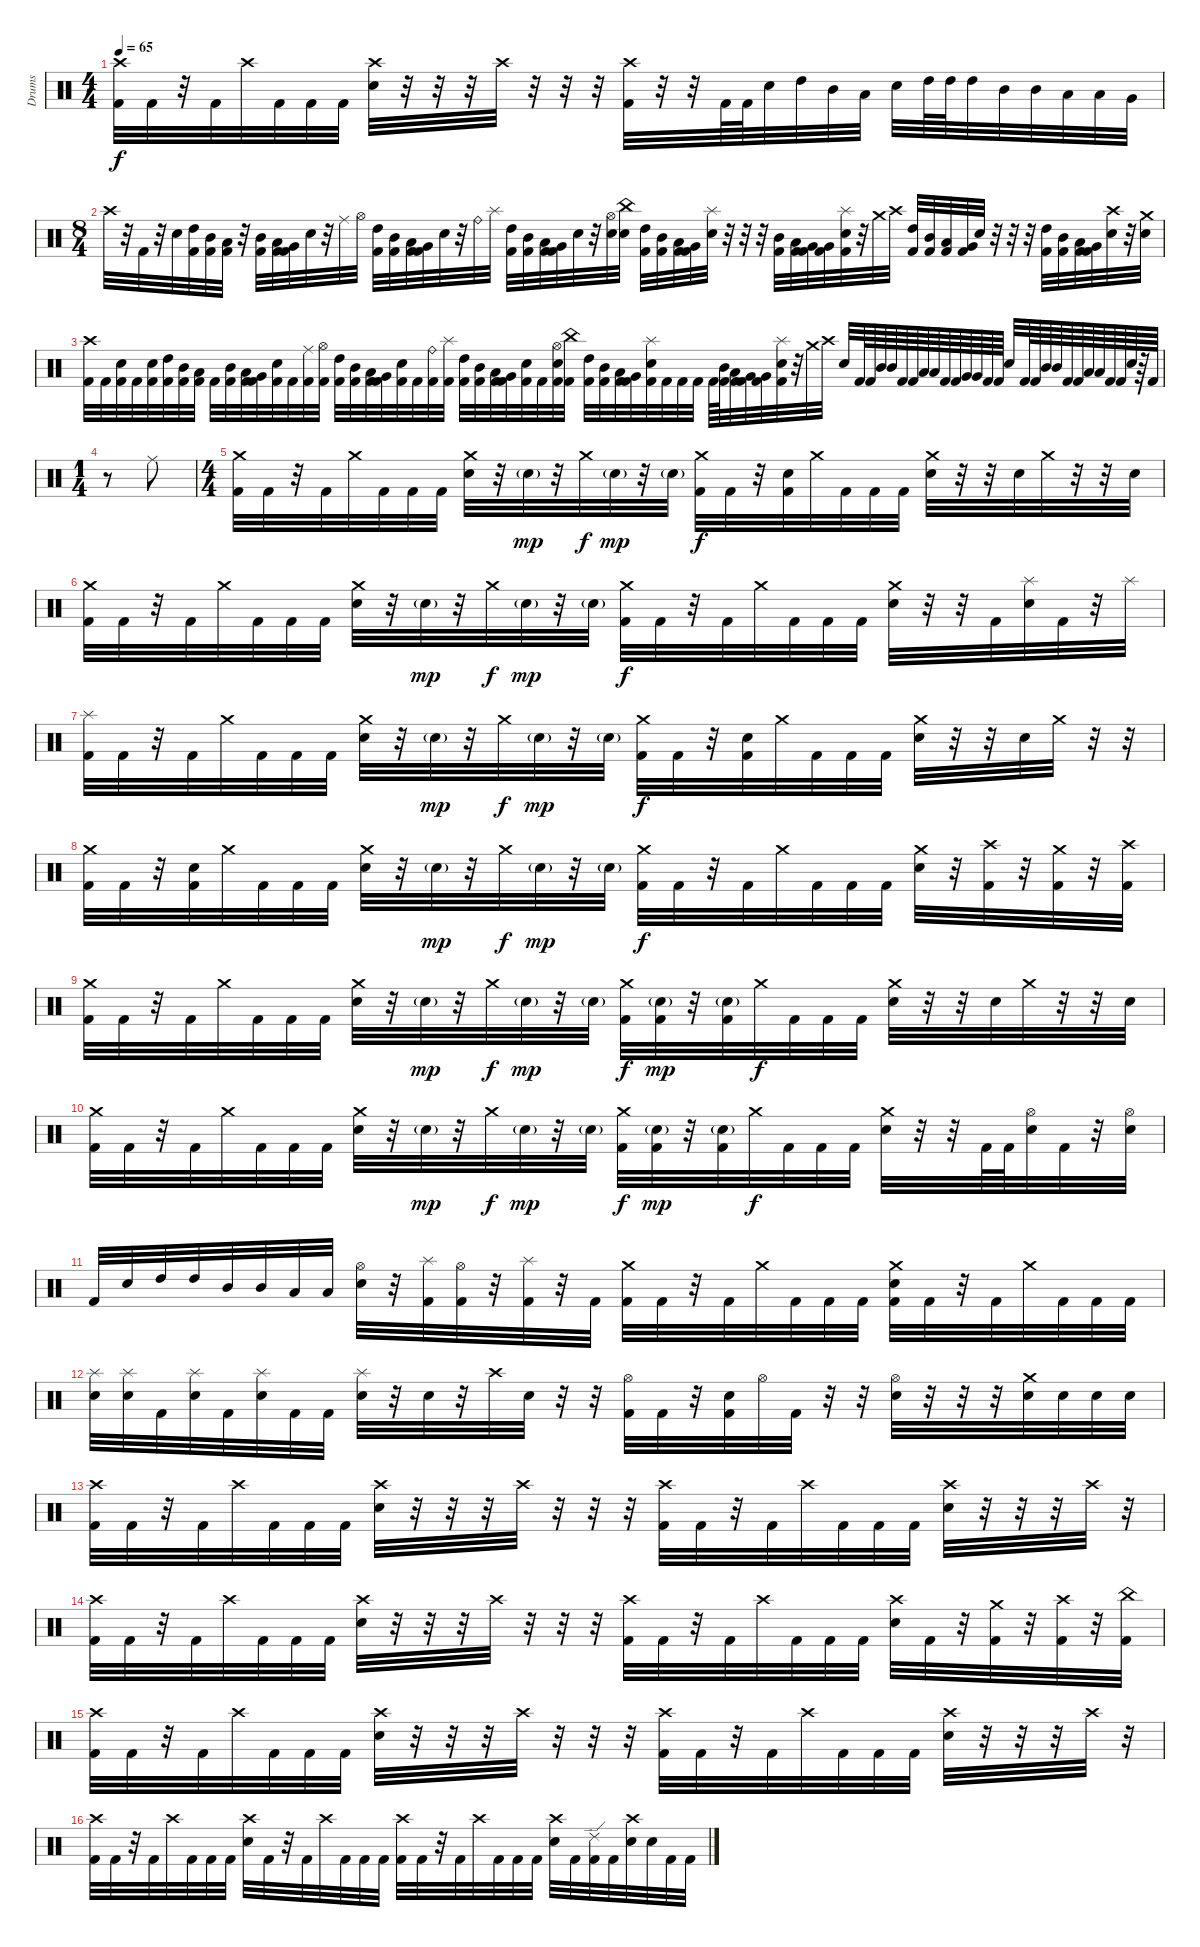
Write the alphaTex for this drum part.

\track ("Drums" "Drums") {instrument percussion}
\staff {score}
\articulation defaults
\ts (4 4)
\tempo 65
\clef neutral
\ks c
("Crash high (hit)" "Kick (hit) 2").32{dy f} "Kick (hit) 2".32 r.32 "Kick (hit) 2".32 "Crash high (hit)".32 "Kick (hit) 2".32 "Kick (hit) 2".32 "Kick (hit) 2".32 ("Crash high (hit)" "Electric Snare (hit)").32 r.32 r.32 r.32 "Crash high (hit)".32 r.32 r.32 r.32 ("Crash high (hit)" "Kick (hit) 2").32 r.32 r.32 "Kick (hit) 2".64 "Kick (hit) 2".64 "Electric Snare (hit)".32 "High Tom (hit)".32 "Mid Tom (hit)".32 "Low Tom (hit)".32 "Electric Snare (hit)".32 "High Tom (hit)".64 "High Tom (hit)".64 "High Tom (hit)".32 "Mid Tom (hit)".32 "Mid Tom (hit)".32 "Low Tom (hit)".32 "Low Tom (hit)".32 "Very Low Tom (hit)".32 |
\ts (8 4)
"Crash high (hit)".32 r.32 "Kick (hit) 2".32 r.32 "Electric Snare (hit)".32 ("High Tom (hit)" "Kick (hit) 2").32 ("Mid Tom (hit)" "Kick (hit) 2").32 ("Low Tom (hit)" "Kick (hit) 2").32 r.32 ("Mid Tom (hit)" "Kick (hit) 2").32 ("Low Tom (hit)" "Kick (hit) 2").32 ("Very Low Tom (hit)" "Kick (hit) 2").32 "Electric Snare (hit)".32 r.32 "Ride (middle)".32 "Hi-Hat (open)".32 ("High Tom (hit)" "Kick (hit) 2").32 ("Mid Tom (hit)" "Kick (hit) 2").32 ("Low Tom (hit)" "Kick (hit) 2").32 ("Very Low Tom (hit)" "Kick (hit) 2").32 "Electric Snare (hit)".32 r.32 "Ride (bell)".32 "Splash (hit)".32 ("High Tom (hit)" "Kick (hit) 2").32 ("Mid Tom (hit)" "Kick (hit) 2").32 ("Low Tom (hit)" "Kick (hit) 2").32 ("Very Low Tom (hit)" "Kick (hit) 2").32 "Electric Snare (hit)".32 r.32 ("Hi-Hat (open)" "Electric Snare (hit)").32 ("China (hit)" "Electric Snare (hit)").32 ("High Tom (hit)" "Kick (hit) 2").32 ("Mid Tom (hit)" "Kick (hit) 2").32 ("Low Tom (hit)" "Kick (hit) 2").32 ("Very Low Tom (hit)" "Kick (hit) 2").32 ("Splash (hit)" "Electric Snare (hit)").32 r.32 r.32 r.32 ("Mid Tom (hit)" "Kick (hit) 2").32 ("Low Tom (hit)" "Kick (hit) 2").32 ("Very Low Tom (hit)" "Kick (hit) 2").32 ("Very Low Tom (hit)" "Kick (hit) 2").32 ("Splash (hit)" "Electric Snare (hit)" "Kick (hit) 2").32 r.32 "Crash medium (hit)".32 "Crash high (hit)".32 ("High Tom (hit)" "Kick (hit) 2").32 ("Mid Tom (hit)" "Kick (hit) 2").32 ("Low Tom (hit)" "Kick (hit) 2").32 ("Very Low Tom (hit)" "Kick (hit) 2").32 "Electric Snare (hit)".32 r.32 r.32 r.32 ("High Tom (hit)" "Kick (hit) 2").32 ("Mid Tom (hit)" "Kick (hit) 2").32 ("Low Tom (hit)" "Kick (hit) 2").32 ("Very Low Tom (hit)" "Kick (hit) 2").32 ("Crash high (hit)" "Electric Snare (hit)").32 r.32 ("Crash medium (hit)" "Electric Snare (hit)").32 |
("Crash high (hit)" "Kick (hit) 2").32 "Kick (hit) 2".32 ("Electric Snare (hit)" "Kick (hit) 2").32 "Kick (hit) 2".32 ("Electric Snare (hit)" "Kick (hit) 2").32 ("High Tom (hit)" "Kick (hit) 2").32 ("Mid Tom (hit)" "Kick (hit) 2").32 ("Low Tom (hit)" "Kick (hit) 2").32 "Kick (hit) 2".32 ("Mid Tom (hit)" "Kick (hit) 2").32 ("Low Tom (hit)" "Kick (hit) 2").32 ("Very Low Tom (hit)" "Kick (hit) 2").32 ("Electric Snare (hit)" "Kick (hit) 2").32 "Kick (hit) 2".32 ("Ride (middle)" "Kick (hit) 2").32 ("Hi-Hat (open)" "Kick (hit) 2").32 ("High Tom (hit)" "Kick (hit) 2").32 ("Mid Tom (hit)" "Kick (hit) 2").32 ("Low Tom (hit)" "Kick (hit) 2").32 ("Very Low Tom (hit)" "Kick (hit) 2").32 ("Electric Snare (hit)" "Kick (hit) 2").32 "Kick (hit) 2".32 ("Ride (bell)" "Kick (hit) 2").32 ("Splash (hit)" "Kick (hit) 2").32 ("High Tom (hit)" "Kick (hit) 2").32 ("Mid Tom (hit)" "Kick (hit) 2").32 ("Low Tom (hit)" "Kick (hit) 2").32 ("Very Low Tom (hit)" "Kick (hit) 2").32 ("Electric Snare (hit)" "Kick (hit) 2").32 "Kick (hit) 2".32 ("Hi-Hat (open)" "Electric Snare (hit)" "Kick (hit) 2").32 ("China (hit)" "Kick (hit) 2").32 ("High Tom (hit)" "Kick (hit) 2").32 ("Mid Tom (hit)" "Kick (hit) 2").32 ("Low Tom (hit)" "Kick (hit) 2").32 ("Very Low Tom (hit)" "Kick (hit) 2").32 ("Splash (hit)" "Electric Snare (hit)" "Kick (hit) 2").32 "Kick (hit) 2".32 "Kick (hit) 2".32 "Kick (hit) 2".32 "Kick (hit) 2".64 ("Mid Tom (hit)" "Kick (hit) 2").64 ("Low Tom (hit)" "Kick (hit) 2").32 ("Very Low Tom (hit)" "Kick (hit) 2").32 ("Very Low Tom (hit)" "Kick (hit) 2").32 ("Splash (hit)" "Electric Snare (hit)" "Kick (hit) 2").32 r.32 "Crash medium (hit)".32 "Crash high (hit)".32 "Electric Snare (hit)".32 "Kick (hit) 2".64 "Kick (hit) 2".64 "Mid Tom (hit)".64 "Mid Tom (hit)".64 "Kick (hit) 2".64 "Kick (hit) 2".64 "Low Tom (hit)".64 "Low Tom (hit)".64 "Kick (hit) 2".64 "Kick (hit) 2".64 "Very Low Tom (hit)".64 "Very Low Tom (hit)".64 "Kick (hit) 2".64 "Kick (hit) 2".64 "Electric Snare (hit)".32 "Kick (hit) 2".64 "Kick (hit) 2".64 "Mid Tom (hit)".64 "Mid Tom (hit)".64 "Kick (hit) 2".64 "Kick (hit) 2".64 "Low Tom (hit)".64 "Low Tom (hit)".64 "Kick (hit) 2".64 "Kick (hit) 2".64 "Electric Snare (hit)".64 r.64 "Kick (hit) 2".64 |
\ts (1 4)
r.8 "Ride (middle)".8 |
\ts (4 4)
("Crash medium (hit)" "Kick (hit) 2").32 "Kick (hit) 2".32 r.32 "Kick (hit) 2".32 "Crash medium (hit)".32 "Kick (hit) 2".32 "Kick (hit) 2".32 "Kick (hit) 2".32 ("Crash medium (hit)" "Electric Snare (hit)").32 r.32 "Electric Snare (hit)"{g}.32{dy mp} r.32 "Crash medium (hit)".32{dy f} "Electric Snare (hit)"{g}.32{dy mp} r.32 "Electric Snare (hit)"{g}.32 ("Crash medium (hit)" "Kick (hit) 2").32{dy f} "Kick (hit) 2".32 r.32 ("Electric Snare (hit)" "Kick (hit) 2").32 "Crash medium (hit)".32 "Kick (hit) 2".32 "Kick (hit) 2".32 "Kick (hit) 2".32 ("Crash medium (hit)" "Electric Snare (hit)").32 r.32 r.32 "Electric Snare (hit)".32 "Crash medium (hit)".32 r.32 r.32 "Electric Snare (hit)".32 |
("Crash medium (hit)" "Kick (hit) 2").32 "Kick (hit) 2".32 r.32 "Kick (hit) 2".32 "Crash medium (hit)".32 "Kick (hit) 2".32 "Kick (hit) 2".32 "Kick (hit) 2".32 ("Crash medium (hit)" "Electric Snare (hit)").32 r.32 "Electric Snare (hit)"{g}.32{dy mp} r.32 "Crash medium (hit)".32{dy f} "Electric Snare (hit)"{g}.32{dy mp} r.32 "Electric Snare (hit)"{g}.32 ("Crash medium (hit)" "Kick (hit) 2").32{dy f} "Kick (hit) 2".32 r.32 "Kick (hit) 2".32 "Crash medium (hit)".32 "Kick (hit) 2".32 "Kick (hit) 2".32 "Kick (hit) 2".32 ("Crash medium (hit)" "Electric Snare (hit)").32 r.32 r.32 "Kick (hit) 2".32 ("Splash (hit)" "Electric Snare (hit)").32 "Kick (hit) 2".32 r.32 "Splash (hit)".32 |
("Splash (hit)" "Kick (hit) 2").32 "Kick (hit) 2".32 r.32 "Kick (hit) 2".32 "Crash medium (hit)".32 "Kick (hit) 2".32 "Kick (hit) 2".32 "Kick (hit) 2".32 ("Crash medium (hit)" "Electric Snare (hit)").32 r.32 "Electric Snare (hit)"{g}.32{dy mp} r.32 "Crash medium (hit)".32{dy f} "Electric Snare (hit)"{g}.32{dy mp} r.32 "Electric Snare (hit)"{g}.32 ("Crash medium (hit)" "Kick (hit) 2").32{dy f} "Kick (hit) 2".32 r.32 ("Electric Snare (hit)" "Kick (hit) 2").32 "Crash medium (hit)".32 "Kick (hit) 2".32 "Kick (hit) 2".32 "Kick (hit) 2".32 ("Crash medium (hit)" "Electric Snare (hit)").32 r.32 r.32 "Electric Snare (hit)".32 "Crash medium (hit)".32 r.32 r.32 |
("Crash medium (hit)" "Kick (hit) 2").32 "Kick (hit) 2".32 r.32 ("Electric Snare (hit)" "Kick (hit) 2").32 "Crash medium (hit)".32 "Kick (hit) 2".32 "Kick (hit) 2".32 "Kick (hit) 2".32 ("Crash medium (hit)" "Electric Snare (hit)").32 r.32 "Electric Snare (hit)"{g}.32{dy mp} r.32 "Crash medium (hit)".32{dy f} "Electric Snare (hit)"{g}.32{dy mp} r.32 "Electric Snare (hit)"{g}.32 ("Crash medium (hit)" "Kick (hit) 2").32{dy f} "Kick (hit) 2".32 r.32 "Kick (hit) 2".32 "Crash medium (hit)".32 "Kick (hit) 2".32 "Kick (hit) 2".32 "Kick (hit) 2".32 ("Crash medium (hit)" "Electric Snare (hit)").32 r.32 ("Crash high (hit)" "Kick (hit) 2").32 r.32 ("Crash medium (hit)" "Kick (hit) 2").32 r.32 ("Crash high (hit)" "Kick (hit) 2").32 |
("Crash medium (hit)" "Kick (hit) 2").32 "Kick (hit) 2".32 r.32 "Kick (hit) 2".32 "Crash medium (hit)".32 "Kick (hit) 2".32 "Kick (hit) 2".32 "Kick (hit) 2".32 ("Crash medium (hit)" "Electric Snare (hit)").32 r.32 "Electric Snare (hit)"{g}.32{dy mp} r.32 "Crash medium (hit)".32{dy f} "Electric Snare (hit)"{g}.32{dy mp} r.32 "Electric Snare (hit)"{g}.32 ("Crash medium (hit)" "Kick (hit) 2").32{dy f} ("Electric Snare (hit)"{g} "Kick (hit) 2").32{dy mp} r.32 ("Electric Snare (hit)"{g} "Kick (hit) 2").32 "Crash medium (hit)".32{dy f} "Kick (hit) 2".32 "Kick (hit) 2".32 "Kick (hit) 2".32 ("Crash medium (hit)" "Electric Snare (hit)").32 r.32 r.32 "Electric Snare (hit)".32 "Crash medium (hit)".32 r.32 r.32 "Electric Snare (hit)".32 |
("Crash medium (hit)" "Kick (hit) 2").32 "Kick (hit) 2".32 r.32 "Kick (hit) 2".32 "Crash medium (hit)".32 "Kick (hit) 2".32 "Kick (hit) 2".32 "Kick (hit) 2".32 ("Crash medium (hit)" "Electric Snare (hit)").32 r.32 "Electric Snare (hit)"{g}.32{dy mp} r.32 "Crash medium (hit)".32{dy f} "Electric Snare (hit)"{g}.32{dy mp} r.32 "Electric Snare (hit)"{g}.32 ("Crash medium (hit)" "Kick (hit) 2").32{dy f} ("Electric Snare (hit)"{g} "Kick (hit) 2").32{dy mp} r.32 ("Electric Snare (hit)"{g} "Kick (hit) 2").32 "Crash medium (hit)".32{dy f} "Kick (hit) 2".32 "Kick (hit) 2".32 "Kick (hit) 2".32 ("Crash medium (hit)" "Electric Snare (hit)").32 r.32 r.32 "Kick (hit) 2".64 "Kick (hit) 2".64 ("Hi-Hat (open)" "Electric Snare (hit)").32 "Kick (hit) 2".32 r.32 ("Hi-Hat (open)" "Electric Snare (hit)").32 |
"Kick (hit) 2".32 "Electric Snare (hit)".32 "High Tom (hit)".32 "High Tom (hit)".32 "Mid Tom (hit)".32 "Mid Tom (hit)".32 "Low Tom (hit)".32 "Low Tom (hit)".32 ("Hi-Hat (open)" "Electric Snare (hit)").32 r.32 ("Splash (hit)" "Kick (hit) 2").32 ("Hi-Hat (open)" "Kick (hit) 2").32 r.32 ("Splash (hit)" "Kick (hit) 2").32 r.32 "Kick (hit) 2".32 ("Crash medium (hit)" "Kick (hit) 2").32 "Kick (hit) 2".32 r.32 "Kick (hit) 2".32 "Crash medium (hit)".32 "Kick (hit) 2".32 "Kick (hit) 2".32 "Kick (hit) 2".32 ("Crash medium (hit)" "Electric Snare (hit)" "Kick (hit) 2").32 "Kick (hit) 2".32 r.32 "Kick (hit) 2".32 "Crash medium (hit)".32 "Kick (hit) 2".32 "Kick (hit) 2".32 "Kick (hit) 2".32 |
("Splash (hit)" "Electric Snare (hit)").32 ("Splash (hit)" "Electric Snare (hit)").32 "Kick (hit) 2".32 ("Splash (hit)" "Electric Snare (hit)").32 "Kick (hit) 2".32 ("Splash (hit)" "Electric Snare (hit)").32 "Kick (hit) 2".32 "Kick (hit) 2".32 ("Splash (hit)" "Electric Snare (hit)").32 r.32 "Electric Snare (hit)".32 r.32 "Crash high (hit)".32 "Electric Snare (hit)".32 r.32 r.32 ("Hi-Hat (open)" "Kick (hit) 2").32 "Kick (hit) 2".32 r.32 ("Electric Snare (hit)" "Kick (hit) 2").32 "Hi-Hat (open)".32 "Kick (hit) 2".32 r.32 r.32 ("Hi-Hat (open)" "Electric Snare (hit)").32 r.32 r.32 r.32 ("Crash medium (hit)" "Electric Snare (hit)").32 "Electric Snare (hit)".32 "Electric Snare (hit)".32 "Electric Snare (hit)".32 |
("Crash high (hit)" "Kick (hit) 2").32 "Kick (hit) 2".32 r.32 "Kick (hit) 2".32 "Crash high (hit)".32 "Kick (hit) 2".32 "Kick (hit) 2".32 "Kick (hit) 2".32 ("Crash high (hit)" "Electric Snare (hit)").32 r.32 r.32 r.32 "Crash high (hit)".32 r.32 r.32 r.32 ("Crash high (hit)" "Kick (hit) 2").32 "Kick (hit) 2".32 r.32 "Kick (hit) 2".32 "Crash high (hit)".32 "Kick (hit) 2".32 "Kick (hit) 2".32 "Kick (hit) 2".32 ("Crash high (hit)" "Electric Snare (hit)").32 r.32 r.32 r.32 "Crash high (hit)".32 r.32 |
("Crash high (hit)" "Kick (hit) 2").32 "Kick (hit) 2".32 r.32 "Kick (hit) 2".32 "Crash high (hit)".32 "Kick (hit) 2".32 "Kick (hit) 2".32 "Kick (hit) 2".32 ("Crash high (hit)" "Electric Snare (hit)").32 r.32 r.32 r.32 "Crash high (hit)".32 r.32 r.32 r.32 ("Crash high (hit)" "Kick (hit) 2").32 "Kick (hit) 2".32 r.32 "Kick (hit) 2".32 "Crash high (hit)".32 "Kick (hit) 2".32 "Kick (hit) 2".32 "Kick (hit) 2".32 ("Crash high (hit)" "Electric Snare (hit)").32 "Kick (hit) 2".32 r.32 ("Crash medium (hit)" "Kick (hit) 2").32 r.32 ("Crash high (hit)" "Kick (hit) 2").32 r.32 ("China (hit)" "Kick (hit) 2").32 |
("Crash high (hit)" "Kick (hit) 2").32 "Kick (hit) 2".32 r.32 "Kick (hit) 2".32 "Crash high (hit)".32 "Kick (hit) 2".32 "Kick (hit) 2".32 "Kick (hit) 2".32 ("Crash high (hit)" "Electric Snare (hit)").32 r.32 r.32 r.32 "Crash high (hit)".32 r.32 r.32 r.32 ("Crash high (hit)" "Kick (hit) 2").32 "Kick (hit) 2".32 r.32 "Kick (hit) 2".32 "Crash high (hit)".32 "Kick (hit) 2".32 "Kick (hit) 2".32 "Kick (hit) 2".32 ("Crash high (hit)" "Electric Snare (hit)").32 r.32 r.32 r.32 "Crash high (hit)".32 r.32 |
("Crash high (hit)" "Kick (hit) 2").32 "Kick (hit) 2".32 r.32 "Kick (hit) 2".32 "Crash high (hit)".32 "Kick (hit) 2".32 "Kick (hit) 2".32 "Kick (hit) 2".32 ("Crash high (hit)" "Electric Snare (hit)").32 "Kick (hit) 2".32 r.32 "Kick (hit) 2".32 "Crash high (hit)".32 "Kick (hit) 2".32 "Kick (hit) 2".32 "Kick (hit) 2".32 ("Crash high (hit)" "Kick (hit) 2").32 "Kick (hit) 2".32 r.32 "Kick (hit) 2".32 "Crash high (hit)".32 "Kick (hit) 2".32 "Kick (hit) 2".32 "Kick (hit) 2".32 ("Crash high (hit)" "Electric Snare (hit)").32 "Kick (hit) 2".32 ("Ride (edge) 2" "Kick (hit) 2").32 "Kick (hit) 2".32 ("Crash high (hit)" "Electric Snare (hit)").32 "Electric Snare (hit)".32 "Kick (hit) 2".32 "Kick (hit) 2".32
